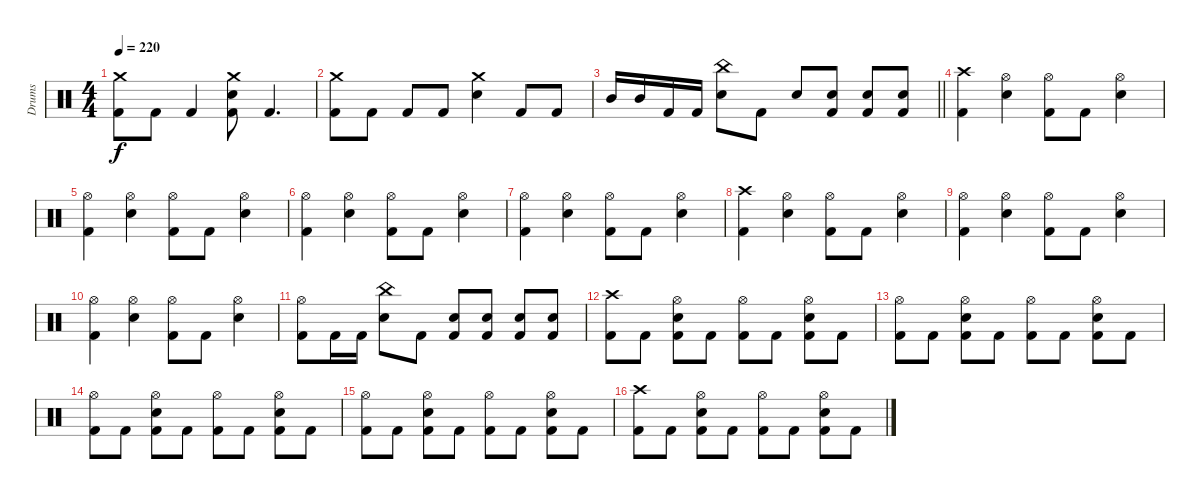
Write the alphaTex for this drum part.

\track ("Drums" "Drums") {instrument percussion}
\staff {score}
\articulation defaults
\ts (4 4)
\tempo 220
\clef neutral
\ks c
("Crash medium (hit)" "Kick (hit) 2").8{dy f} "Kick (hit) 2".8 "Kick (hit) 2".4 ("Crash medium (hit)" "Snare (hit) 2" "Kick (hit) 2").8 "Kick (hit) 2".4{d} |
("Crash medium (hit)" "Kick (hit) 2").8 "Kick (hit) 2".8 "Kick (hit) 2".8 "Kick (hit) 2".8 ("Crash medium (hit)" "Snare (hit) 2").4 "Kick (hit) 2".8 "Kick (hit) 2".8 |
\barLineRight lightlight "Mid Tom (hit)".16 "Mid Tom (hit)".16 "Kick (hit) 2".16 "Kick (hit) 2".16
("China (hit)" "Snare (hit) 2").8 "Kick (hit) 2".8 "Snare (hit) 2".8 ("Snare (hit) 2" "Kick (hit) 2").8 ("Snare (hit) 2" "Kick (hit) 2").8 ("Snare (hit) 2" "Kick (hit) 2").8 |
("Crash high (hit)" "Kick (hit) 2").4 ("Hi-Hat (open)" "Snare (hit) 2").4 ("Hi-Hat (open)" "Kick (hit) 2").8 "Kick (hit) 2".8 ("Hi-Hat (open)" "Snare (hit) 2").4 |
("Hi-Hat (open)" "Kick (hit) 2").4 ("Hi-Hat (open)" "Snare (hit) 2").4 ("Hi-Hat (open)" "Kick (hit) 2").8 "Kick (hit) 2".8 ("Hi-Hat (open)" "Snare (hit) 2").4 |
("Hi-Hat (open)" "Kick (hit) 2").4 ("Hi-Hat (open)" "Snare (hit) 2").4 ("Hi-Hat (open)" "Kick (hit) 2").8 "Kick (hit) 2".8 ("Hi-Hat (open)" "Snare (hit) 2").4 |
("Hi-Hat (open)" "Kick (hit) 2").4 ("Hi-Hat (open)" "Snare (hit) 2").4 ("Hi-Hat (open)" "Kick (hit) 2").8 "Kick (hit) 2".8 ("Hi-Hat (open)" "Snare (hit) 2").4 |
("Crash high (hit)" "Kick (hit) 2").4 ("Hi-Hat (open)" "Snare (hit) 2").4 ("Hi-Hat (open)" "Kick (hit) 2").8 "Kick (hit) 2".8 ("Hi-Hat (open)" "Snare (hit) 2").4 |
("Hi-Hat (open)" "Kick (hit) 2").4 ("Hi-Hat (open)" "Snare (hit) 2").4 ("Hi-Hat (open)" "Kick (hit) 2").8 "Kick (hit) 2".8 ("Hi-Hat (open)" "Snare (hit) 2").4 |
("Hi-Hat (open)" "Kick (hit) 2").4 ("Hi-Hat (open)" "Snare (hit) 2").4 ("Hi-Hat (open)" "Kick (hit) 2").8 "Kick (hit) 2".8 ("Hi-Hat (open)" "Snare (hit) 2").4 |
("Hi-Hat (open)" "Kick (hit) 2").8 "Kick (hit) 2".16 "Kick (hit) 2".16 ("China (hit)" "Snare (hit) 2").8 "Kick (hit) 2".8 ("Snare (hit) 2" "Kick (hit) 2").8 ("Snare (hit) 2" "Kick (hit) 2").8 ("Snare (hit) 2" "Kick (hit) 2").8 ("Snare (hit) 2" "Kick (hit) 2").8 |
("Crash high (hit)" "Kick (hit) 2").8 "Kick (hit) 2".8 ("Hi-Hat (open)" "Snare (hit) 2" "Kick (hit) 2").8 "Kick (hit) 2".8 ("Hi-Hat (open)" "Kick (hit) 2").8 "Kick (hit) 2".8 ("Hi-Hat (open)" "Snare (hit) 2" "Kick (hit) 2").8 "Kick (hit) 2".8 |
("Hi-Hat (open)" "Kick (hit) 2").8 "Kick (hit) 2".8 ("Hi-Hat (open)" "Snare (hit) 2" "Kick (hit) 2").8 "Kick (hit) 2".8 ("Hi-Hat (open)" "Kick (hit) 2").8 "Kick (hit) 2".8 ("Hi-Hat (open)" "Snare (hit) 2" "Kick (hit) 2").8 "Kick (hit) 2".8 |
("Hi-Hat (open)" "Kick (hit) 2").8 "Kick (hit) 2".8 ("Hi-Hat (open)" "Snare (hit) 2" "Kick (hit) 2").8 "Kick (hit) 2".8 ("Hi-Hat (open)" "Kick (hit) 2").8 "Kick (hit) 2".8 ("Hi-Hat (open)" "Snare (hit) 2" "Kick (hit) 2").8 "Kick (hit) 2".8 |
("Hi-Hat (open)" "Kick (hit) 2").8 "Kick (hit) 2".8 ("Hi-Hat (open)" "Snare (hit) 2" "Kick (hit) 2").8 "Kick (hit) 2".8 ("Hi-Hat (open)" "Kick (hit) 2").8 "Kick (hit) 2".8 ("Hi-Hat (open)" "Snare (hit) 2" "Kick (hit) 2").8 "Kick (hit) 2".8 |
("Crash high (hit)" "Kick (hit) 2").8 "Kick (hit) 2".8 ("Hi-Hat (open)" "Snare (hit) 2" "Kick (hit) 2").8 "Kick (hit) 2".8 ("Hi-Hat (open)" "Kick (hit) 2").8 "Kick (hit) 2".8 ("Hi-Hat (open)" "Snare (hit) 2" "Kick (hit) 2").8 "Kick (hit) 2".8
